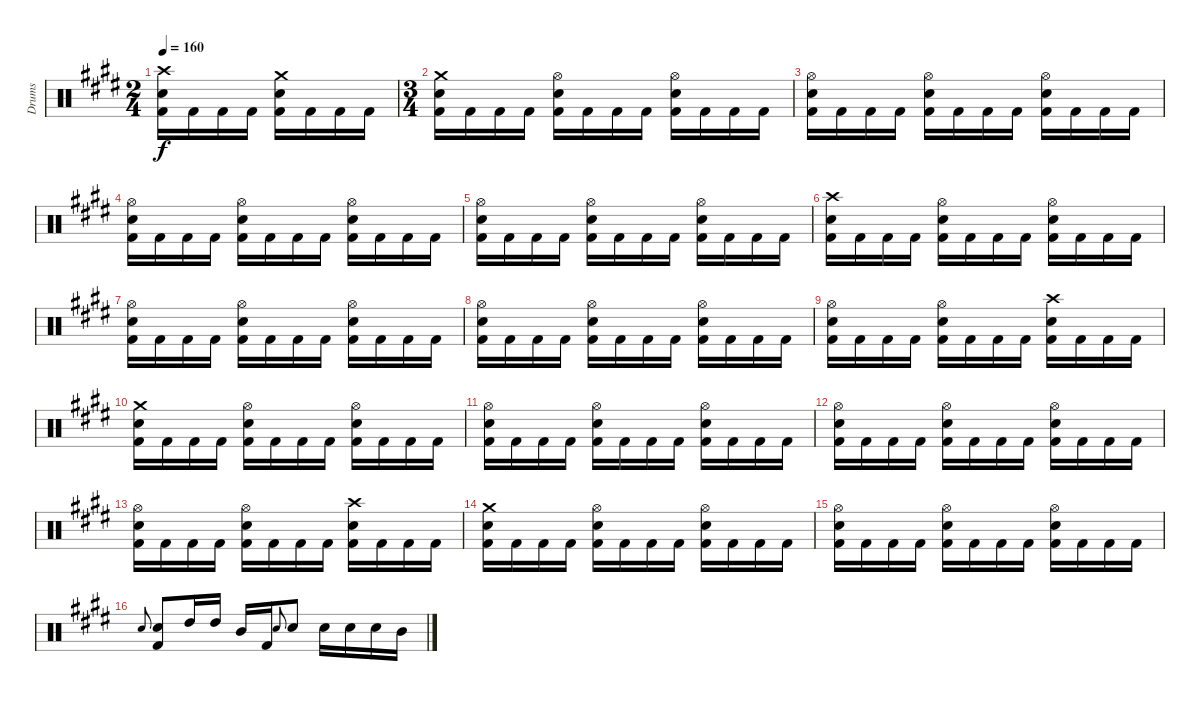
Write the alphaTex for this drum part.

\track ("Drums" "Drums") {instrument percussion}
\staff {score}
\articulation defaults
\ts (2 4)
\tempo 160
\clef neutral
\ks c#minor
("Crash high (hit)" "Snare (hit) 2" "Kick (hit) 2").16{dy f} "Kick (hit) 2".16 "Kick (hit) 2".16 "Kick (hit) 2".16 ("Crash medium (hit)" "Snare (hit) 2" "Kick (hit) 2").16 "Kick (hit) 2".16 "Kick (hit) 2".16 "Kick (hit) 2".16 |
\ts (3 4)
("Crash medium (hit)" "Snare (hit) 2" "Kick (hit) 2").16 "Kick (hit) 2".16 "Kick (hit) 2".16 "Kick (hit) 2".16 ("Hi-Hat (open)" "Snare (hit) 2" "Kick (hit) 2").16 "Kick (hit) 2".16 "Kick (hit) 2".16 "Kick (hit) 2".16 ("Hi-Hat (open)" "Snare (hit) 2" "Kick (hit) 2").16 "Kick (hit) 2".16 "Kick (hit) 2".16 "Kick (hit) 2".16 |
("Hi-Hat (open)" "Snare (hit) 2" "Kick (hit) 2").16 "Kick (hit) 2".16 "Kick (hit) 2".16 "Kick (hit) 2".16 ("Hi-Hat (open)" "Snare (hit) 2" "Kick (hit) 2").16 "Kick (hit) 2".16 "Kick (hit) 2".16 "Kick (hit) 2".16 ("Hi-Hat (open)" "Snare (hit) 2" "Kick (hit) 2").16 "Kick (hit) 2".16 "Kick (hit) 2".16 "Kick (hit) 2".16 |
("Hi-Hat (open)" "Snare (hit) 2" "Kick (hit) 2").16 "Kick (hit) 2".16 "Kick (hit) 2".16 "Kick (hit) 2".16 ("Hi-Hat (open)" "Snare (hit) 2" "Kick (hit) 2").16 "Kick (hit) 2".16 "Kick (hit) 2".16 "Kick (hit) 2".16 ("Hi-Hat (open)" "Snare (hit) 2" "Kick (hit) 2").16 "Kick (hit) 2".16 "Kick (hit) 2".16 "Kick (hit) 2".16 |
("Hi-Hat (open)" "Snare (hit) 2" "Kick (hit) 2").16 "Kick (hit) 2".16 "Kick (hit) 2".16 "Kick (hit) 2".16 ("Hi-Hat (open)" "Snare (hit) 2" "Kick (hit) 2").16 "Kick (hit) 2".16 "Kick (hit) 2".16 "Kick (hit) 2".16 ("Hi-Hat (open)" "Snare (hit) 2" "Kick (hit) 2").16 "Kick (hit) 2".16 "Kick (hit) 2".16 "Kick (hit) 2".16 |
("Crash high (hit)" "Snare (hit) 2" "Kick (hit) 2").16 "Kick (hit) 2".16 "Kick (hit) 2".16 "Kick (hit) 2".16 ("Hi-Hat (open)" "Snare (hit) 2" "Kick (hit) 2").16 "Kick (hit) 2".16 "Kick (hit) 2".16 "Kick (hit) 2".16 ("Hi-Hat (open)" "Snare (hit) 2" "Kick (hit) 2").16 "Kick (hit) 2".16 "Kick (hit) 2".16 "Kick (hit) 2".16 |
("Hi-Hat (open)" "Snare (hit) 2" "Kick (hit) 2").16 "Kick (hit) 2".16 "Kick (hit) 2".16 "Kick (hit) 2".16 ("Hi-Hat (open)" "Snare (hit) 2" "Kick (hit) 2").16 "Kick (hit) 2".16 "Kick (hit) 2".16 "Kick (hit) 2".16 ("Hi-Hat (open)" "Snare (hit) 2" "Kick (hit) 2").16 "Kick (hit) 2".16 "Kick (hit) 2".16 "Kick (hit) 2".16 |
("Hi-Hat (open)" "Snare (hit) 2" "Kick (hit) 2").16 "Kick (hit) 2".16 "Kick (hit) 2".16 "Kick (hit) 2".16 ("Hi-Hat (open)" "Snare (hit) 2" "Kick (hit) 2").16 "Kick (hit) 2".16 "Kick (hit) 2".16 "Kick (hit) 2".16 ("Hi-Hat (open)" "Snare (hit) 2" "Kick (hit) 2").16 "Kick (hit) 2".16 "Kick (hit) 2".16 "Kick (hit) 2".16 |
("Hi-Hat (open)" "Snare (hit) 2" "Kick (hit) 2").16 "Kick (hit) 2".16 "Kick (hit) 2".16 "Kick (hit) 2".16 ("Hi-Hat (open)" "Snare (hit) 2" "Kick (hit) 2").16 "Kick (hit) 2".16 "Kick (hit) 2".16 "Kick (hit) 2".16 ("Crash high (hit)" "Snare (hit) 2" "Kick (hit) 2").16 "Kick (hit) 2".16 "Kick (hit) 2".16 "Kick (hit) 2".16 |
("Crash medium (hit)" "Snare (hit) 2" "Kick (hit) 2").16 "Kick (hit) 2".16 "Kick (hit) 2".16 "Kick (hit) 2".16 ("Hi-Hat (open)" "Snare (hit) 2" "Kick (hit) 2").16 "Kick (hit) 2".16 "Kick (hit) 2".16 "Kick (hit) 2".16 ("Hi-Hat (open)" "Snare (hit) 2" "Kick (hit) 2").16 "Kick (hit) 2".16 "Kick (hit) 2".16 "Kick (hit) 2".16 |
("Hi-Hat (open)" "Snare (hit) 2" "Kick (hit) 2").16 "Kick (hit) 2".16 "Kick (hit) 2".16 "Kick (hit) 2".16 ("Hi-Hat (open)" "Snare (hit) 2" "Kick (hit) 2").16 "Kick (hit) 2".16 "Kick (hit) 2".16 "Kick (hit) 2".16 ("Hi-Hat (open)" "Snare (hit) 2" "Kick (hit) 2").16 "Kick (hit) 2".16 "Kick (hit) 2".16 "Kick (hit) 2".16 |
("Hi-Hat (open)" "Snare (hit) 2" "Kick (hit) 2").16 "Kick (hit) 2".16 "Kick (hit) 2".16 "Kick (hit) 2".16 ("Hi-Hat (open)" "Snare (hit) 2" "Kick (hit) 2").16 "Kick (hit) 2".16 "Kick (hit) 2".16 "Kick (hit) 2".16 ("Hi-Hat (open)" "Snare (hit) 2" "Kick (hit) 2").16 "Kick (hit) 2".16 "Kick (hit) 2".16 "Kick (hit) 2".16 |
("Hi-Hat (open)" "Snare (hit) 2" "Kick (hit) 2").16 "Kick (hit) 2".16 "Kick (hit) 2".16 "Kick (hit) 2".16 ("Hi-Hat (open)" "Snare (hit) 2" "Kick (hit) 2").16 "Kick (hit) 2".16 "Kick (hit) 2".16 "Kick (hit) 2".16 ("Crash high (hit)" "Snare (hit) 2" "Kick (hit) 2").16 "Kick (hit) 2".16 "Kick (hit) 2".16 "Kick (hit) 2".16 |
("Crash medium (hit)" "Snare (hit) 2" "Kick (hit) 2").16 "Kick (hit) 2".16 "Kick (hit) 2".16 "Kick (hit) 2".16 ("Hi-Hat (open)" "Snare (hit) 2" "Kick (hit) 2").16 "Kick (hit) 2".16 "Kick (hit) 2".16 "Kick (hit) 2".16 ("Hi-Hat (open)" "Snare (hit) 2" "Kick (hit) 2").16 "Kick (hit) 2".16 "Kick (hit) 2".16 "Kick (hit) 2".16 |
("Hi-Hat (open)" "Snare (hit) 2" "Kick (hit) 2").16 "Kick (hit) 2".16 "Kick (hit) 2".16 "Kick (hit) 2".16 ("Hi-Hat (open)" "Snare (hit) 2" "Kick (hit) 2").16 "Kick (hit) 2".16 "Kick (hit) 2".16 "Kick (hit) 2".16 ("Hi-Hat (open)" "Snare (hit) 2" "Kick (hit) 2").16 "Kick (hit) 2".16 "Kick (hit) 2".16 "Kick (hit) 2".16 |
"Snare (hit) 2".8{gr onbeat} ("Snare (hit) 2" "Kick (hit) 2").8 "High Tom (hit)".16 "High Tom (hit)".16 "Mid Tom (hit)".16 "Kick (hit) 2".16 "Snare (hit) 2".8{gr onbeat} "Snare (hit) 2".8 "Snare (hit) 2".16 "Snare (hit) 2".16 "Snare (hit) 2".16 "Mid Tom (hit)".16
